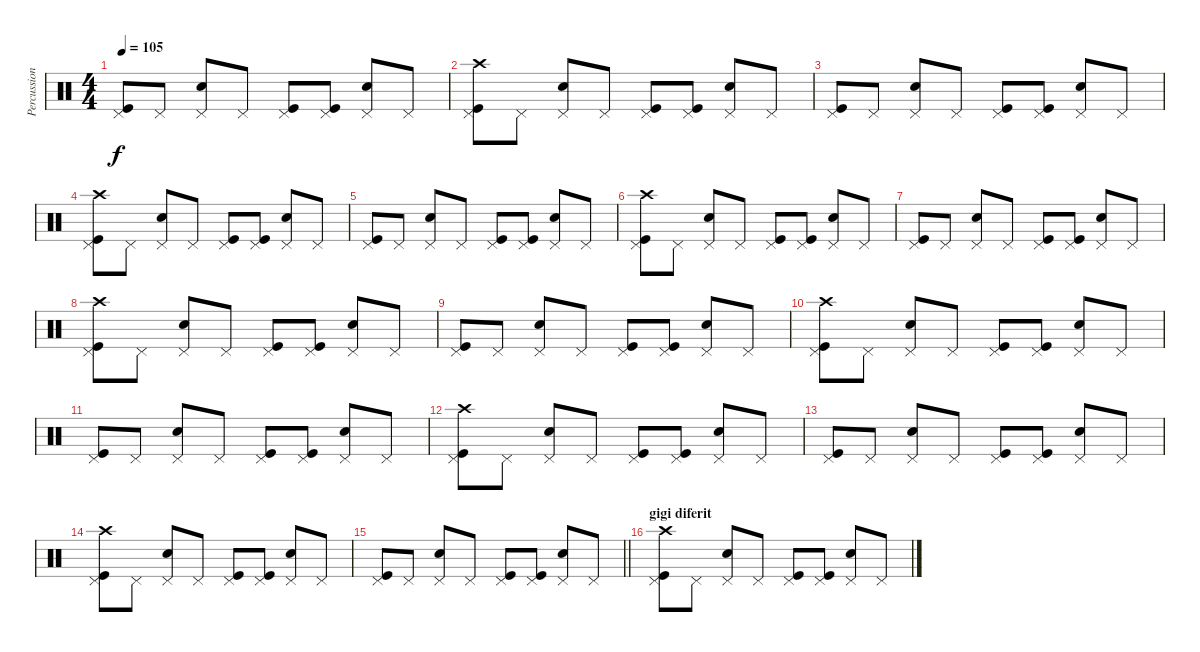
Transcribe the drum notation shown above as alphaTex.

\track ("Percussion" "Percussion") {instrument percussion}
\staff {score}
\articulation defaults
\ts (4 4)
\tempo 105
\clef neutral
\ks c
("Pedal Hi-Hat (hit)" "Kick (hit)").8{dy f} "Pedal Hi-Hat (hit)".8 ("Pedal Hi-Hat (hit)" "Snare (hit) 2").8 "Pedal Hi-Hat (hit)".8 ("Pedal Hi-Hat (hit)" "Kick (hit)").8 ("Pedal Hi-Hat (hit)" "Kick (hit)").8 ("Pedal Hi-Hat (hit)" "Snare (hit) 2").8 "Pedal Hi-Hat (hit)".8 |
("Pedal Hi-Hat (hit)" "Crash high (hit)" "Kick (hit)").8 "Pedal Hi-Hat (hit)".8 ("Pedal Hi-Hat (hit)" "Snare (hit) 2").8 "Pedal Hi-Hat (hit)".8 ("Pedal Hi-Hat (hit)" "Kick (hit)").8 ("Pedal Hi-Hat (hit)" "Kick (hit)").8 ("Pedal Hi-Hat (hit)" "Snare (hit) 2").8 "Pedal Hi-Hat (hit)".8 |
("Pedal Hi-Hat (hit)" "Kick (hit)").8 "Pedal Hi-Hat (hit)".8 ("Pedal Hi-Hat (hit)" "Snare (hit) 2").8 "Pedal Hi-Hat (hit)".8 ("Pedal Hi-Hat (hit)" "Kick (hit)").8 ("Pedal Hi-Hat (hit)" "Kick (hit)").8 ("Pedal Hi-Hat (hit)" "Snare (hit) 2").8 "Pedal Hi-Hat (hit)".8 |
("Pedal Hi-Hat (hit)" "Crash high (hit)" "Kick (hit)").8 "Pedal Hi-Hat (hit)".8 ("Pedal Hi-Hat (hit)" "Snare (hit) 2").8 "Pedal Hi-Hat (hit)".8 ("Pedal Hi-Hat (hit)" "Kick (hit)").8 ("Pedal Hi-Hat (hit)" "Kick (hit)").8 ("Pedal Hi-Hat (hit)" "Snare (hit) 2").8 "Pedal Hi-Hat (hit)".8 |
("Pedal Hi-Hat (hit)" "Kick (hit)").8 "Pedal Hi-Hat (hit)".8 ("Pedal Hi-Hat (hit)" "Snare (hit) 2").8 "Pedal Hi-Hat (hit)".8 ("Pedal Hi-Hat (hit)" "Kick (hit)").8 ("Pedal Hi-Hat (hit)" "Kick (hit)").8 ("Pedal Hi-Hat (hit)" "Snare (hit) 2").8 "Pedal Hi-Hat (hit)".8 |
("Pedal Hi-Hat (hit)" "Crash high (hit)" "Kick (hit)").8 "Pedal Hi-Hat (hit)".8 ("Pedal Hi-Hat (hit)" "Snare (hit) 2").8 "Pedal Hi-Hat (hit)".8 ("Pedal Hi-Hat (hit)" "Kick (hit)").8 ("Pedal Hi-Hat (hit)" "Kick (hit)").8 ("Pedal Hi-Hat (hit)" "Snare (hit) 2").8 "Pedal Hi-Hat (hit)".8 |
("Pedal Hi-Hat (hit)" "Kick (hit)").8 "Pedal Hi-Hat (hit)".8 ("Pedal Hi-Hat (hit)" "Snare (hit) 2").8 "Pedal Hi-Hat (hit)".8 ("Pedal Hi-Hat (hit)" "Kick (hit)").8 ("Pedal Hi-Hat (hit)" "Kick (hit)").8 ("Pedal Hi-Hat (hit)" "Snare (hit) 2").8 "Pedal Hi-Hat (hit)".8 |
("Pedal Hi-Hat (hit)" "Crash high (hit)" "Kick (hit)").8 "Pedal Hi-Hat (hit)".8 ("Pedal Hi-Hat (hit)" "Snare (hit) 2").8 "Pedal Hi-Hat (hit)".8 ("Pedal Hi-Hat (hit)" "Kick (hit)").8 ("Pedal Hi-Hat (hit)" "Kick (hit)").8 ("Pedal Hi-Hat (hit)" "Snare (hit) 2").8 "Pedal Hi-Hat (hit)".8 |
("Pedal Hi-Hat (hit)" "Kick (hit)").8 "Pedal Hi-Hat (hit)".8 ("Pedal Hi-Hat (hit)" "Snare (hit) 2").8 "Pedal Hi-Hat (hit)".8 ("Pedal Hi-Hat (hit)" "Kick (hit)").8 ("Pedal Hi-Hat (hit)" "Kick (hit)").8 ("Pedal Hi-Hat (hit)" "Snare (hit) 2").8 "Pedal Hi-Hat (hit)".8 |
("Pedal Hi-Hat (hit)" "Crash high (hit)" "Kick (hit)").8 "Pedal Hi-Hat (hit)".8 ("Pedal Hi-Hat (hit)" "Snare (hit) 2").8 "Pedal Hi-Hat (hit)".8 ("Pedal Hi-Hat (hit)" "Kick (hit)").8 ("Pedal Hi-Hat (hit)" "Kick (hit)").8 ("Pedal Hi-Hat (hit)" "Snare (hit) 2").8 "Pedal Hi-Hat (hit)".8 |
("Pedal Hi-Hat (hit)" "Kick (hit)").8 "Pedal Hi-Hat (hit)".8 ("Pedal Hi-Hat (hit)" "Snare (hit) 2").8 "Pedal Hi-Hat (hit)".8 ("Pedal Hi-Hat (hit)" "Kick (hit)").8 ("Pedal Hi-Hat (hit)" "Kick (hit)").8 ("Pedal Hi-Hat (hit)" "Snare (hit) 2").8 "Pedal Hi-Hat (hit)".8 |
("Pedal Hi-Hat (hit)" "Crash high (hit)" "Kick (hit)").8 "Pedal Hi-Hat (hit)".8 ("Pedal Hi-Hat (hit)" "Snare (hit) 2").8 "Pedal Hi-Hat (hit)".8 ("Pedal Hi-Hat (hit)" "Kick (hit)").8 ("Pedal Hi-Hat (hit)" "Kick (hit)").8 ("Pedal Hi-Hat (hit)" "Snare (hit) 2").8 "Pedal Hi-Hat (hit)".8 |
("Pedal Hi-Hat (hit)" "Kick (hit)").8 "Pedal Hi-Hat (hit)".8 ("Pedal Hi-Hat (hit)" "Snare (hit) 2").8 "Pedal Hi-Hat (hit)".8 ("Pedal Hi-Hat (hit)" "Kick (hit)").8 ("Pedal Hi-Hat (hit)" "Kick (hit)").8 ("Pedal Hi-Hat (hit)" "Snare (hit) 2").8 "Pedal Hi-Hat (hit)".8 |
("Pedal Hi-Hat (hit)" "Crash high (hit)" "Kick (hit)").8 "Pedal Hi-Hat (hit)".8 ("Pedal Hi-Hat (hit)" "Snare (hit) 2").8 "Pedal Hi-Hat (hit)".8 ("Pedal Hi-Hat (hit)" "Kick (hit)").8 ("Pedal Hi-Hat (hit)" "Kick (hit)").8 ("Pedal Hi-Hat (hit)" "Snare (hit) 2").8 "Pedal Hi-Hat (hit)".8 |
\barLineRight lightlight
("Pedal Hi-Hat (hit)" "Kick (hit)").8 "Pedal Hi-Hat (hit)".8 ("Pedal Hi-Hat (hit)" "Snare (hit) 2").8 "Pedal Hi-Hat (hit)".8 ("Pedal Hi-Hat (hit)" "Kick (hit)").8 ("Pedal Hi-Hat (hit)" "Kick (hit)").8 ("Pedal Hi-Hat (hit)" "Snare (hit) 2").8 "Pedal Hi-Hat (hit)".8 |
\section ("" "gigi diferit")
("Pedal Hi-Hat (hit)" "Crash high (hit)" "Kick (hit)").8 "Pedal Hi-Hat (hit)".8 ("Pedal Hi-Hat (hit)" "Snare (hit) 2").8 "Pedal Hi-Hat (hit)".8 ("Pedal Hi-Hat (hit)" "Kick (hit)").8 ("Pedal Hi-Hat (hit)" "Kick (hit)").8 ("Pedal Hi-Hat (hit)" "Snare (hit) 2").8 "Pedal Hi-Hat (hit)".8
